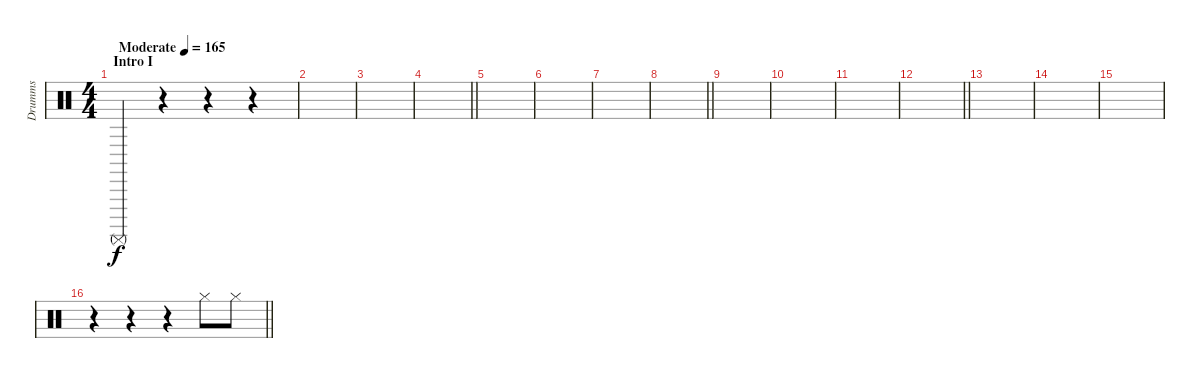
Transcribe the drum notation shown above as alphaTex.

\track ("Drumms" "Drumms") {instrument percussion}
\staff {score}
\articulation defaults
\ts (4 4)
\section ("" "Intro I")
\tempo (165 "Moderate")
\clef neutral
\ks c "Surdo (mute)".4{dy f}
r.4 r.4 r.4 |
|
|
\barLineRight lightlight
|
|
|
|
\barLineRight lightlight
|
|
|
|
\barLineRight lightlight
|
|
|
|
\barLineRight lightlight
r.4 r.4 r.4 "Hi-Hat (closed)".8 "Hi-Hat (closed)".8
